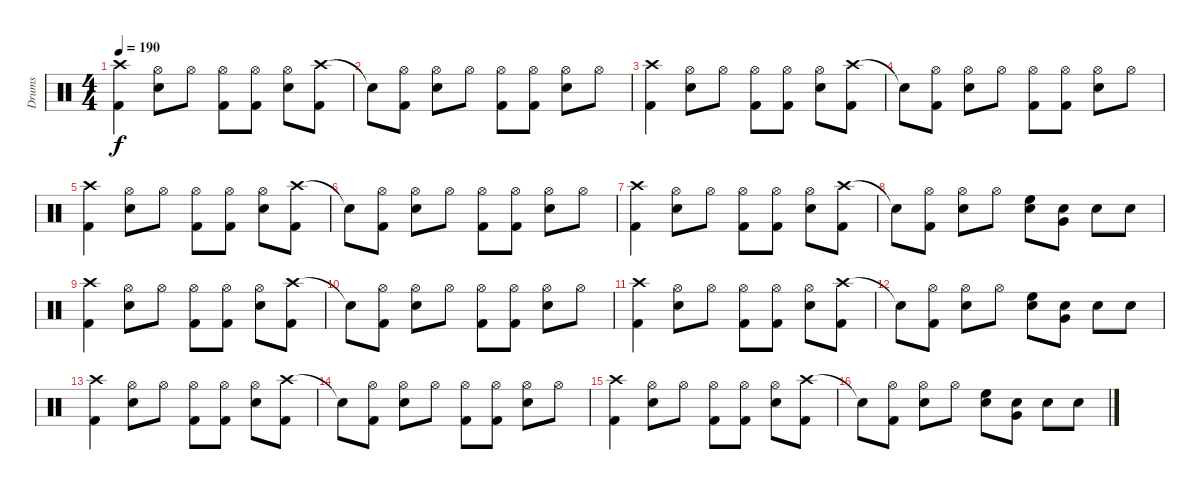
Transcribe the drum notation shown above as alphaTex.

\track ("Drums" "Drums") {instrument percussion}
\staff {score}
\articulation defaults
\ts (4 4)
\tempo 190
\clef neutral
\ks c
("Crash high (hit)" "Kick (hit) 2").4{dy f} ("Hi-Hat (open)" "Electric Snare (hit)").8 "Hi-Hat (open)".8 ("Hi-Hat (open)" "Kick (hit) 2").8 ("Hi-Hat (open)" "Kick (hit) 2").8 ("Hi-Hat (open)" "Electric Snare (hit)").8 ("Crash high (hit)" "Kick (hit) 2").8 |
"Snare (hit)"{t}.8 ("Hi-Hat (open)" "Kick (hit) 2").8 ("Hi-Hat (open)" "Electric Snare (hit)").8 "Hi-Hat (open)".8 ("Hi-Hat (open)" "Kick (hit) 2").8 ("Hi-Hat (open)" "Kick (hit) 2").8 ("Hi-Hat (open)" "Electric Snare (hit)").8 "Hi-Hat (open)".8 |
("Crash high (hit)" "Kick (hit) 2").4 ("Hi-Hat (open)" "Electric Snare (hit)").8 "Hi-Hat (open)".8 ("Hi-Hat (open)" "Kick (hit) 2").8 ("Hi-Hat (open)" "Kick (hit) 2").8 ("Hi-Hat (open)" "Electric Snare (hit)").8 ("Crash high (hit)" "Kick (hit) 2").8 |
"Snare (hit)"{t}.8 ("Hi-Hat (open)" "Kick (hit) 2").8 ("Hi-Hat (open)" "Electric Snare (hit)").8 "Hi-Hat (open)".8 ("Hi-Hat (open)" "Kick (hit) 2").8 ("Hi-Hat (open)" "Kick (hit) 2").8 ("Hi-Hat (open)" "Electric Snare (hit)").8 "Hi-Hat (open)".8 |
("Crash high (hit)" "Kick (hit) 2").4 ("Hi-Hat (open)" "Electric Snare (hit)").8 "Hi-Hat (open)".8 ("Hi-Hat (open)" "Kick (hit) 2").8 ("Hi-Hat (open)" "Kick (hit) 2").8 ("Hi-Hat (open)" "Electric Snare (hit)").8 ("Crash high (hit)" "Kick (hit) 2").8 |
"Snare (hit)"{t}.8 ("Hi-Hat (open)" "Kick (hit) 2").8 ("Hi-Hat (open)" "Electric Snare (hit)").8 "Hi-Hat (open)".8 ("Hi-Hat (open)" "Kick (hit) 2").8 ("Hi-Hat (open)" "Kick (hit) 2").8 ("Hi-Hat (open)" "Electric Snare (hit)").8 "Hi-Hat (open)".8 |
("Crash high (hit)" "Kick (hit) 2").4 ("Hi-Hat (open)" "Electric Snare (hit)").8 "Hi-Hat (open)".8 ("Hi-Hat (open)" "Kick (hit) 2").8 ("Hi-Hat (open)" "Kick (hit) 2").8 ("Hi-Hat (open)" "Electric Snare (hit)").8 ("Crash high (hit)" "Kick (hit) 2").8 |
"Snare (hit)"{t}.8 ("Hi-Hat (open)" "Kick (hit) 2").8 ("Hi-Hat (open)" "Electric Snare (hit)").8 "Hi-Hat (open)".8 ("Electric Snare (hit)" "High Floor Tom (hit)").8 ("Electric Snare (hit)" "Very Low Tom (hit)").8 "Electric Snare (hit)".8 "Electric Snare (hit)".8 |
("Crash high (hit)" "Kick (hit) 2").4 ("Hi-Hat (open)" "Electric Snare (hit)").8 "Hi-Hat (open)".8 ("Hi-Hat (open)" "Kick (hit) 2").8 ("Hi-Hat (open)" "Kick (hit) 2").8 ("Hi-Hat (open)" "Electric Snare (hit)").8 ("Crash high (hit)" "Kick (hit) 2").8 |
"Snare (hit)"{t}.8 ("Hi-Hat (open)" "Kick (hit) 2").8 ("Hi-Hat (open)" "Electric Snare (hit)").8 "Hi-Hat (open)".8 ("Hi-Hat (open)" "Kick (hit) 2").8 ("Hi-Hat (open)" "Kick (hit) 2").8 ("Hi-Hat (open)" "Electric Snare (hit)").8 "Hi-Hat (open)".8 |
("Crash high (hit)" "Kick (hit) 2").4 ("Hi-Hat (open)" "Electric Snare (hit)").8 "Hi-Hat (open)".8 ("Hi-Hat (open)" "Kick (hit) 2").8 ("Hi-Hat (open)" "Kick (hit) 2").8 ("Hi-Hat (open)" "Electric Snare (hit)").8 ("Crash high (hit)" "Kick (hit) 2").8 |
"Snare (hit)"{t}.8 ("Hi-Hat (open)" "Kick (hit) 2").8 ("Hi-Hat (open)" "Electric Snare (hit)").8 "Hi-Hat (open)".8 ("High Floor Tom (hit)" "Electric Snare (hit)").8 ("Very Low Tom (hit)" "Electric Snare (hit)").8 "Electric Snare (hit)".8 "Electric Snare (hit)".8 |
("Crash high (hit)" "Kick (hit) 2").4 ("Hi-Hat (open)" "Electric Snare (hit)").8 "Hi-Hat (open)".8 ("Hi-Hat (open)" "Kick (hit) 2").8 ("Hi-Hat (open)" "Kick (hit) 2").8 ("Hi-Hat (open)" "Electric Snare (hit)").8 ("Crash high (hit)" "Kick (hit) 2").8 |
"Snare (hit)"{t}.8 ("Hi-Hat (open)" "Kick (hit) 2").8 ("Hi-Hat (open)" "Electric Snare (hit)").8 "Hi-Hat (open)".8 ("Hi-Hat (open)" "Kick (hit) 2").8 ("Hi-Hat (open)" "Kick (hit) 2").8 ("Hi-Hat (open)" "Electric Snare (hit)").8 "Hi-Hat (open)".8 |
("Crash high (hit)" "Kick (hit) 2").4 ("Hi-Hat (open)" "Electric Snare (hit)").8 "Hi-Hat (open)".8 ("Hi-Hat (open)" "Kick (hit) 2").8 ("Hi-Hat (open)" "Kick (hit) 2").8 ("Hi-Hat (open)" "Electric Snare (hit)").8 ("Crash high (hit)" "Kick (hit) 2").8 |
"Snare (hit)"{t}.8 ("Hi-Hat (open)" "Kick (hit) 2").8 ("Hi-Hat (open)" "Electric Snare (hit)").8 "Hi-Hat (open)".8 ("High Floor Tom (hit)" "Electric Snare (hit)").8 ("Very Low Tom (hit)" "Electric Snare (hit)").8 "Electric Snare (hit)".8 "Electric Snare (hit)".8
